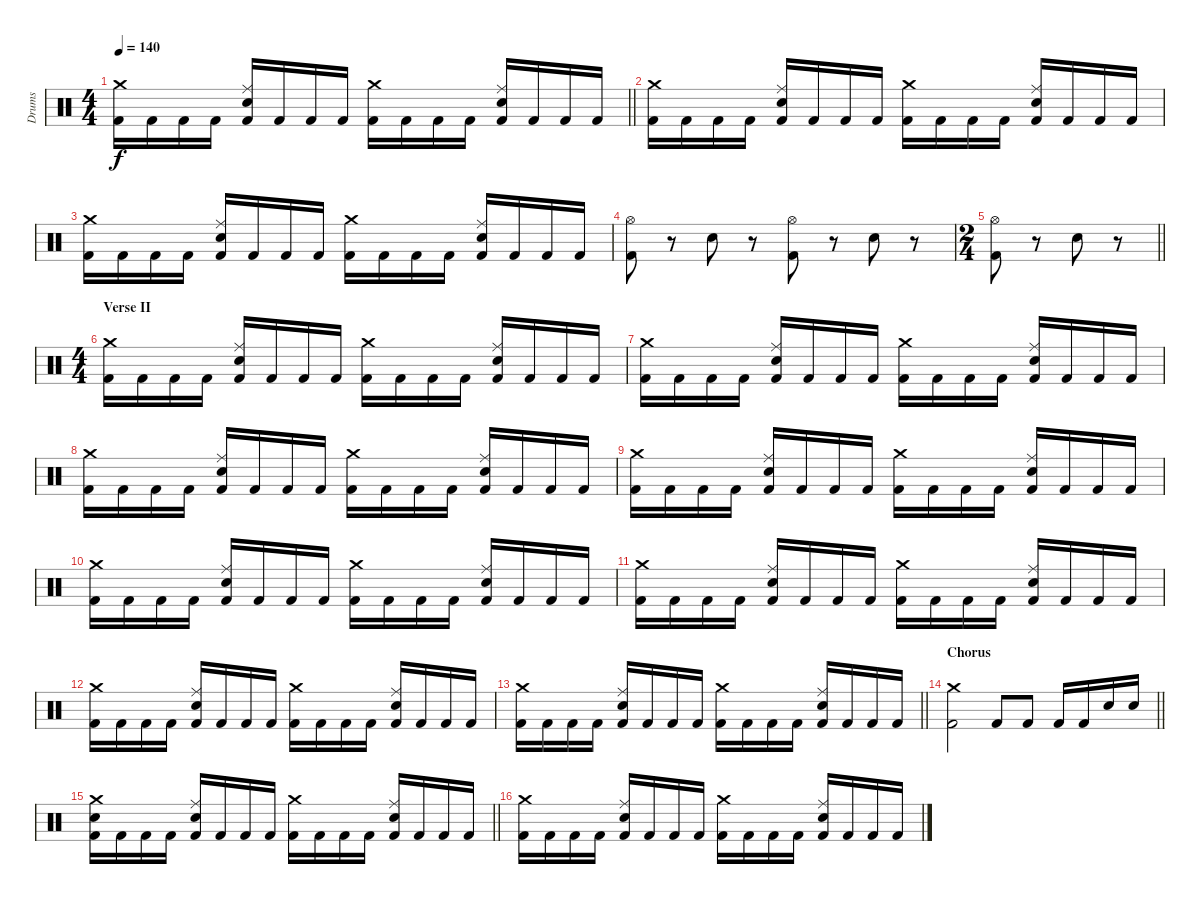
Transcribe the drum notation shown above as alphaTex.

\track ("Drums" "Drums") {instrument percussion}
\staff {score}
\articulation defaults
\ts (4 4)
\tempo 140
\clef neutral
\barLineRight lightlight
\ks c
("Crash medium (hit)" "Kick (hit) 2").16{dy f} "Kick (hit) 2".16 "Kick (hit) 2".16 "Kick (hit) 2".16 ("Ride (middle)" "Snare (hit) 2" "Kick (hit) 2").16 "Kick (hit) 2".16 "Kick (hit) 2".16 "Kick (hit) 2".16 ("Crash medium (hit)" "Kick (hit) 2").16 "Kick (hit) 2".16 "Kick (hit) 2".16 "Kick (hit) 2".16 ("Ride (middle)" "Snare (hit) 2" "Kick (hit) 2").16 "Kick (hit) 2".16 "Kick (hit) 2".16 "Kick (hit) 2".16 |
("Crash medium (hit)" "Kick (hit) 2").16 "Kick (hit) 2".16 "Kick (hit) 2".16 "Kick (hit) 2".16 ("Ride (middle)" "Snare (hit) 2" "Kick (hit) 2").16 "Kick (hit) 2".16 "Kick (hit) 2".16 "Kick (hit) 2".16 ("Crash medium (hit)" "Kick (hit) 2").16 "Kick (hit) 2".16 "Kick (hit) 2".16 "Kick (hit) 2".16 ("Ride (middle)" "Snare (hit) 2" "Kick (hit) 2").16 "Kick (hit) 2".16 "Kick (hit) 2".16 "Kick (hit) 2".16 |
("Crash medium (hit)" "Kick (hit) 2").16 "Kick (hit) 2".16 "Kick (hit) 2".16 "Kick (hit) 2".16 ("Ride (middle)" "Snare (hit) 2" "Kick (hit) 2").16 "Kick (hit) 2".16 "Kick (hit) 2".16 "Kick (hit) 2".16 ("Crash medium (hit)" "Kick (hit) 2").16 "Kick (hit) 2".16 "Kick (hit) 2".16 "Kick (hit) 2".16 ("Ride (middle)" "Snare (hit) 2" "Kick (hit) 2").16 "Kick (hit) 2".16 "Kick (hit) 2".16 "Kick (hit) 2".16 |
("Hi-Hat (open)" "Kick (hit) 2").8 r.8 "Snare (hit) 2".8 r.8 ("Hi-Hat (open)" "Kick (hit) 2").8 r.8 "Snare (hit) 2".8 r.8 |
\ts (2 4)
\barLineRight lightlight
("Hi-Hat (open)" "Kick (hit) 2").8 r.8 "Snare (hit) 2".8 r.8 |
\ts (4 4)
\section ("" "Verse II")
("Crash medium (hit)" "Kick (hit) 2").16 "Kick (hit) 2".16 "Kick (hit) 2".16 "Kick (hit) 2".16 ("Ride (middle)" "Snare (hit) 2" "Kick (hit) 2").16 "Kick (hit) 2".16 "Kick (hit) 2".16 "Kick (hit) 2".16 ("Crash medium (hit)" "Kick (hit) 2").16 "Kick (hit) 2".16 "Kick (hit) 2".16 "Kick (hit) 2".16 ("Ride (middle)" "Snare (hit) 2" "Kick (hit) 2").16 "Kick (hit) 2".16 "Kick (hit) 2".16 "Kick (hit) 2".16 |
("Crash medium (hit)" "Kick (hit) 2").16 "Kick (hit) 2".16 "Kick (hit) 2".16 "Kick (hit) 2".16 ("Ride (middle)" "Snare (hit) 2" "Kick (hit) 2").16 "Kick (hit) 2".16 "Kick (hit) 2".16 "Kick (hit) 2".16 ("Crash medium (hit)" "Kick (hit) 2").16 "Kick (hit) 2".16 "Kick (hit) 2".16 "Kick (hit) 2".16 ("Ride (middle)" "Snare (hit) 2" "Kick (hit) 2").16 "Kick (hit) 2".16 "Kick (hit) 2".16 "Kick (hit) 2".16 |
("Crash medium (hit)" "Kick (hit) 2").16 "Kick (hit) 2".16 "Kick (hit) 2".16 "Kick (hit) 2".16 ("Ride (middle)" "Snare (hit) 2" "Kick (hit) 2").16 "Kick (hit) 2".16 "Kick (hit) 2".16 "Kick (hit) 2".16 ("Crash medium (hit)" "Kick (hit) 2").16 "Kick (hit) 2".16 "Kick (hit) 2".16 "Kick (hit) 2".16 ("Ride (middle)" "Snare (hit) 2" "Kick (hit) 2").16 "Kick (hit) 2".16 "Kick (hit) 2".16 "Kick (hit) 2".16 |
("Crash medium (hit)" "Kick (hit) 2").16 "Kick (hit) 2".16 "Kick (hit) 2".16 "Kick (hit) 2".16 ("Ride (middle)" "Snare (hit) 2" "Kick (hit) 2").16 "Kick (hit) 2".16 "Kick (hit) 2".16 "Kick (hit) 2".16 ("Crash medium (hit)" "Kick (hit) 2").16 "Kick (hit) 2".16 "Kick (hit) 2".16 "Kick (hit) 2".16 ("Ride (middle)" "Snare (hit) 2" "Kick (hit) 2").16 "Kick (hit) 2".16 "Kick (hit) 2".16 "Kick (hit) 2".16 |
("Crash medium (hit)" "Kick (hit) 2").16 "Kick (hit) 2".16 "Kick (hit) 2".16 "Kick (hit) 2".16 ("Ride (middle)" "Snare (hit) 2" "Kick (hit) 2").16 "Kick (hit) 2".16 "Kick (hit) 2".16 "Kick (hit) 2".16 ("Crash medium (hit)" "Kick (hit) 2").16 "Kick (hit) 2".16 "Kick (hit) 2".16 "Kick (hit) 2".16 ("Ride (middle)" "Snare (hit) 2" "Kick (hit) 2").16 "Kick (hit) 2".16 "Kick (hit) 2".16 "Kick (hit) 2".16 |
("Crash medium (hit)" "Kick (hit) 2").16 "Kick (hit) 2".16 "Kick (hit) 2".16 "Kick (hit) 2".16 ("Ride (middle)" "Snare (hit) 2" "Kick (hit) 2").16 "Kick (hit) 2".16 "Kick (hit) 2".16 "Kick (hit) 2".16 ("Crash medium (hit)" "Kick (hit) 2").16 "Kick (hit) 2".16 "Kick (hit) 2".16 "Kick (hit) 2".16 ("Ride (middle)" "Snare (hit) 2" "Kick (hit) 2").16 "Kick (hit) 2".16 "Kick (hit) 2".16 "Kick (hit) 2".16 |
("Crash medium (hit)" "Kick (hit) 2").16 "Kick (hit) 2".16 "Kick (hit) 2".16 "Kick (hit) 2".16 ("Ride (middle)" "Snare (hit) 2" "Kick (hit) 2").16 "Kick (hit) 2".16 "Kick (hit) 2".16 "Kick (hit) 2".16 ("Crash medium (hit)" "Kick (hit) 2").16 "Kick (hit) 2".16 "Kick (hit) 2".16 "Kick (hit) 2".16 ("Ride (middle)" "Snare (hit) 2" "Kick (hit) 2").16 "Kick (hit) 2".16 "Kick (hit) 2".16 "Kick (hit) 2".16 |
\barLineRight lightlight
("Crash medium (hit)" "Kick (hit) 2").16 "Kick (hit) 2".16 "Kick (hit) 2".16 "Kick (hit) 2".16 ("Ride (middle)" "Snare (hit) 2" "Kick (hit) 2").16 "Kick (hit) 2".16 "Kick (hit) 2".16 "Kick (hit) 2".16 ("Crash medium (hit)" "Kick (hit) 2").16 "Kick (hit) 2".16 "Kick (hit) 2".16 "Kick (hit) 2".16 ("Ride (middle)" "Snare (hit) 2" "Kick (hit) 2").16 "Kick (hit) 2".16 "Kick (hit) 2".16 "Kick (hit) 2".16 |
\section ("" "Chorus")
\barLineRight lightlight
("Crash medium (hit)" "Kick (hit) 2").2 "Kick (hit) 2".8 "Kick (hit) 2".8 "Kick (hit) 2".16 "Kick (hit) 2".16 "Snare (hit) 2".16 "Snare (hit) 2".16 |
\barLineRight lightlight
("Crash medium (hit)" "Snare (hit) 2" "Kick (hit) 2").16 "Kick (hit) 2".16 "Kick (hit) 2".16 "Kick (hit) 2".16 ("Ride (middle)" "Snare (hit) 2" "Kick (hit) 2").16 "Kick (hit) 2".16 "Kick (hit) 2".16 "Kick (hit) 2".16 ("Crash medium (hit)" "Kick (hit) 2").16 "Kick (hit) 2".16 "Kick (hit) 2".16 "Kick (hit) 2".16 ("Ride (middle)" "Snare (hit) 2" "Kick (hit) 2").16 "Kick (hit) 2".16 "Kick (hit) 2".16 "Kick (hit) 2".16 |
("Crash medium (hit)" "Kick (hit) 2").16 "Kick (hit) 2".16 "Kick (hit) 2".16 "Kick (hit) 2".16 ("Ride (middle)" "Snare (hit) 2" "Kick (hit) 2").16 "Kick (hit) 2".16 "Kick (hit) 2".16 "Kick (hit) 2".16 ("Crash medium (hit)" "Kick (hit) 2").16 "Kick (hit) 2".16 "Kick (hit) 2".16 "Kick (hit) 2".16 ("Ride (middle)" "Snare (hit) 2" "Kick (hit) 2").16 "Kick (hit) 2".16 "Kick (hit) 2".16 "Kick (hit) 2".16
